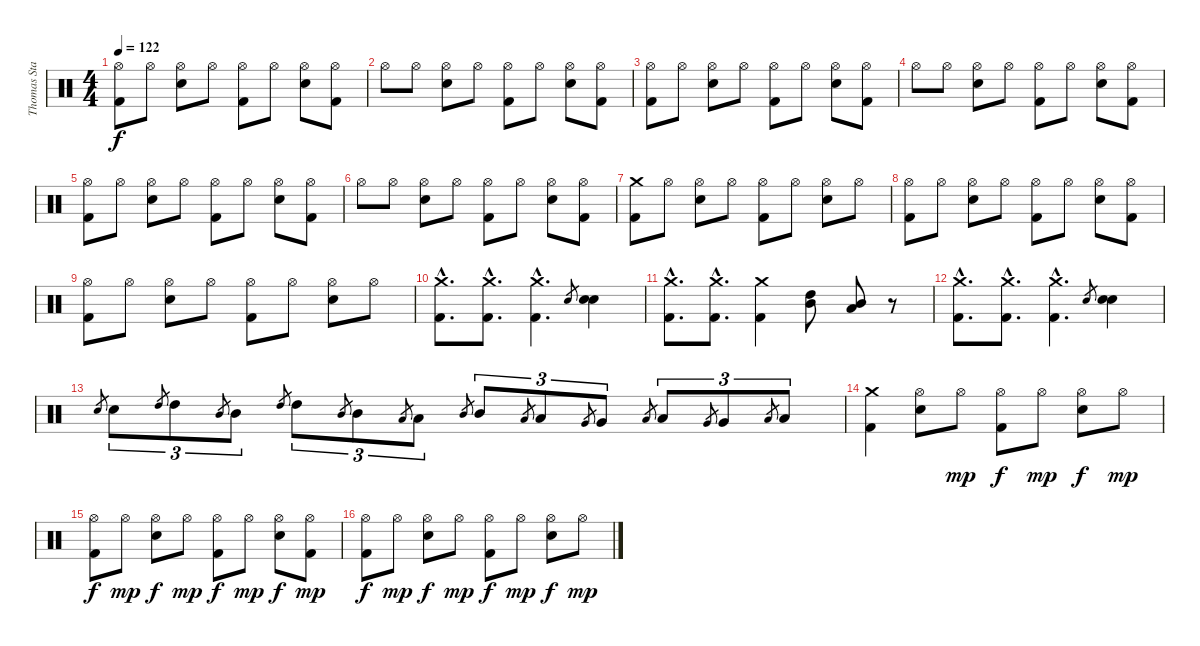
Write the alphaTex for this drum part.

\track ("Thomas Stauch" "Thomas Sta") {instrument percussion}
\staff {score}
\articulation defaults
\ts (4 4)
\tempo 122
\clef neutral
\ks c
("Hi-Hat (open)" "Kick (hit) 2").8{dy f} "Hi-Hat (open)".8 ("Hi-Hat (open)" "Electric Snare (hit)").8 "Hi-Hat (open)".8 ("Hi-Hat (open)" "Kick (hit) 2").8 "Hi-Hat (open)".8 ("Hi-Hat (open)" "Electric Snare (hit)").8 ("Hi-Hat (open)" "Kick (hit) 2").8 |
"Hi-Hat (open)".8 "Hi-Hat (open)".8 ("Hi-Hat (open)" "Electric Snare (hit)").8 "Hi-Hat (open)".8 ("Hi-Hat (open)" "Kick (hit) 2").8 "Hi-Hat (open)".8 ("Hi-Hat (open)" "Electric Snare (hit)").8 ("Hi-Hat (open)" "Kick (hit) 2").8 |
("Hi-Hat (open)" "Kick (hit) 2").8 "Hi-Hat (open)".8 ("Hi-Hat (open)" "Electric Snare (hit)").8 "Hi-Hat (open)".8 ("Hi-Hat (open)" "Kick (hit) 2").8 "Hi-Hat (open)".8 ("Hi-Hat (open)" "Electric Snare (hit)").8 ("Hi-Hat (open)" "Kick (hit) 2").8 |
"Hi-Hat (open)".8 "Hi-Hat (open)".8 ("Hi-Hat (open)" "Electric Snare (hit)").8 "Hi-Hat (open)".8 ("Hi-Hat (open)" "Kick (hit) 2").8 "Hi-Hat (open)".8 ("Hi-Hat (open)" "Electric Snare (hit)").8 ("Hi-Hat (open)" "Kick (hit) 2").8 |
("Hi-Hat (open)" "Kick (hit) 2").8 "Hi-Hat (open)".8 ("Hi-Hat (open)" "Electric Snare (hit)").8 "Hi-Hat (open)".8 ("Hi-Hat (open)" "Kick (hit) 2").8 "Hi-Hat (open)".8 ("Hi-Hat (open)" "Electric Snare (hit)").8 ("Hi-Hat (open)" "Kick (hit) 2").8 |
"Hi-Hat (open)".8 "Hi-Hat (open)".8 ("Hi-Hat (open)" "Electric Snare (hit)").8 "Hi-Hat (open)".8 ("Hi-Hat (open)" "Kick (hit) 2").8 "Hi-Hat (open)".8 ("Hi-Hat (open)" "Electric Snare (hit)").8 ("Hi-Hat (open)" "Kick (hit) 2").8 |
("Crash medium (hit)" "Kick (hit) 2").8 "Hi-Hat (open)".8 ("Hi-Hat (open)" "Electric Snare (hit)").8 "Hi-Hat (open)".8 ("Hi-Hat (open)" "Kick (hit) 2").8 "Hi-Hat (open)".8 ("Hi-Hat (open)" "Electric Snare (hit)").8 "Hi-Hat (open)".8 |
("Hi-Hat (open)" "Kick (hit) 2").8 "Hi-Hat (open)".8 ("Hi-Hat (open)" "Electric Snare (hit)").8 "Hi-Hat (open)".8 ("Hi-Hat (open)" "Kick (hit) 2").8 "Hi-Hat (open)".8 ("Hi-Hat (open)" "Electric Snare (hit)").8 ("Hi-Hat (open)" "Kick (hit) 2").8 |
("Hi-Hat (open)" "Kick (hit) 2").8 "Hi-Hat (open)".8 ("Hi-Hat (open)" "Electric Snare (hit)").8 "Hi-Hat (open)".8 ("Hi-Hat (open)" "Kick (hit) 2").8 "Hi-Hat (open)".8 ("Hi-Hat (open)" "Electric Snare (hit)").8 "Hi-Hat (open)".8 |
("Crash medium (hit)"{hac} "Kick (hit) 2"{hac}).8{d} ("Crash medium (hit)"{hac} "Kick (hit) 2"{hac}).8{d} ("Crash medium (hit)"{hac} "Kick (hit) 2"{hac}).4{d} "Electric Snare (hit)".8{gr} ("Electric Snare (hit)" "Electric Snare (hit)").4 |
("Crash medium (hit)"{hac} "Kick (hit) 2"{hac}).8{d} ("Crash medium (hit)"{hac} "Kick (hit) 2"{hac}).8{d} ("Crash medium (hit)" "Kick (hit) 2").4 ("High Tom (hit)" "Mid Tom (hit)").8 ("Mid Tom (hit)" "Low Tom (hit)").8 r.8 |
("Crash medium (hit)"{hac} "Kick (hit) 2"{hac}).8{d} ("Crash medium (hit)"{hac} "Kick (hit) 2"{hac}).8{d} ("Crash medium (hit)"{hac} "Kick (hit) 2"{hac}).4{d} "Electric Snare (hit)".8{gr} ("Electric Snare (hit)" "Electric Snare (hit)").4 |
"Electric Snare (hit)".8{gr} "Electric Snare (hit)".8{tu (3 2)} "High Tom (hit)".8{gr} "High Tom (hit)".8{tu (3 2)} "Mid Tom (hit)".8{gr} "Mid Tom (hit)".8{tu (3 2)} "High Tom (hit)".8{gr} "High Tom (hit)".8{tu (3 2)} "Mid Tom (hit)".8{gr} "Mid Tom (hit)".8{tu (3 2)} "Low Tom (hit)".8{gr} "Low Tom (hit)".8{tu (3 2)} "Mid Tom (hit)".8{gr} "Mid Tom (hit)".8{tu (3 2)} "Low Tom (hit)".8{gr} "Low Tom (hit)".8{tu (3 2)} "Very Low Tom (hit)".8{gr} "Very Low Tom (hit)".8{tu (3 2)} "Low Tom (hit)".8{gr} "Low Tom (hit)".8{tu (3 2)} "Very Low Tom (hit)".8{gr} "Very Low Tom (hit)".8{tu (3 2)} "Low Floor Tom (hit)".8{gr} "Low Floor Tom (hit)".8{tu (3 2)} |
("Crash medium (hit)" "Kick (hit) 2").4 ("Hi-Hat (open)" "Electric Snare (hit)").8 "Hi-Hat (open)".8{dy mp} ("Hi-Hat (open)" "Kick (hit) 2").8{dy f} "Hi-Hat (open)".8{dy mp} ("Hi-Hat (open)" "Electric Snare (hit)").8{dy f} "Hi-Hat (open)".8{dy mp} |
("Hi-Hat (open)" "Kick (hit) 2").8{dy f} "Hi-Hat (open)".8{dy mp} ("Hi-Hat (open)" "Electric Snare (hit)").8{dy f} "Hi-Hat (open)".8{dy mp} ("Hi-Hat (open)" "Kick (hit) 2").8{dy f} "Hi-Hat (open)".8{dy mp} ("Hi-Hat (open)" "Electric Snare (hit)").8{dy f} ("Hi-Hat (open)" "Kick (hit) 2").8{dy mp} |
("Hi-Hat (open)" "Kick (hit) 2").8{dy f} "Hi-Hat (open)".8{dy mp} ("Hi-Hat (open)" "Electric Snare (hit)").8{dy f} "Hi-Hat (open)".8{dy mp} ("Hi-Hat (open)" "Kick (hit) 2").8{dy f} "Hi-Hat (open)".8{dy mp} ("Hi-Hat (open)" "Electric Snare (hit)").8{dy f} "Hi-Hat (open)".8{dy mp}
